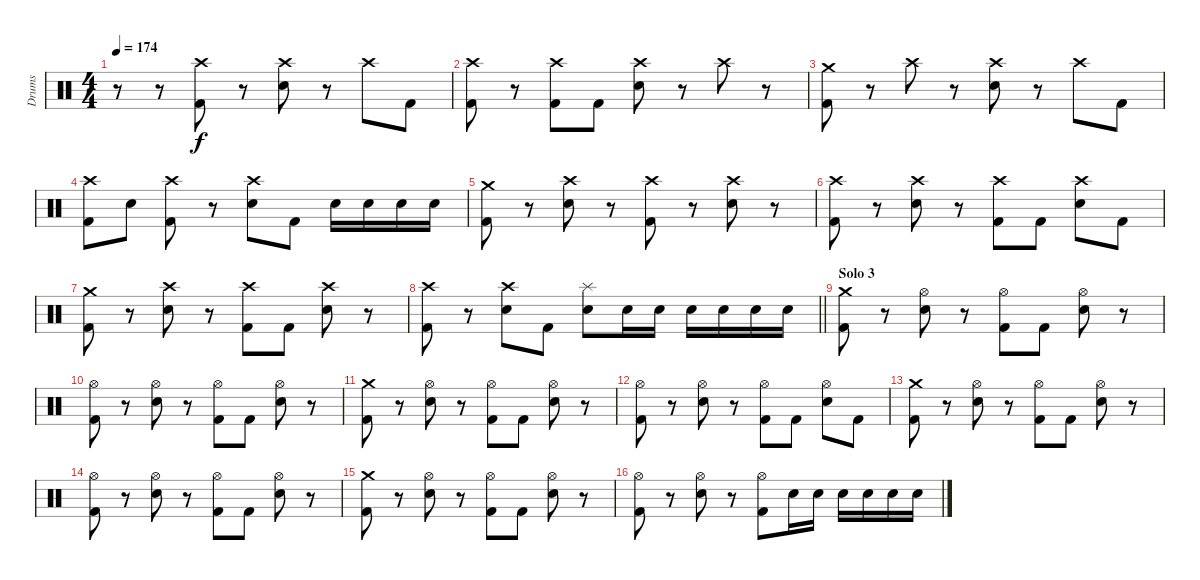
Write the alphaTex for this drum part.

\track ("Drums" "Drums") {instrument percussion}
\staff {score}
\articulation defaults
\ts (4 4)
\tempo 174
\clef neutral
\ks c
r.8{dy f} r.8 ("Crash high (hit)" "Kick (hit) 2").8 r.8 ("Crash high (hit)" "Electric Snare (hit)").8 r.8 "Crash high (hit)".8 "Kick (hit) 2".8 |
("Crash high (hit)" "Kick (hit) 2").8 r.8 ("Crash high (hit)" "Kick (hit) 2").8 "Kick (hit) 2".8 ("Crash high (hit)" "Electric Snare (hit)").8 r.8 "Crash high (hit)".8 r.8 |
("Crash medium (hit)" "Kick (hit) 2").8 r.8 "Crash high (hit)".8 r.8 ("Crash high (hit)" "Electric Snare (hit)").8 r.8 "Crash high (hit)".8 "Kick (hit) 2".8 |
("Crash high (hit)" "Kick (hit) 2").8 "Electric Snare (hit)".8 ("Crash high (hit)" "Kick (hit) 2").8 r.8 ("Crash high (hit)" "Electric Snare (hit)").8 "Kick (hit) 2".8 "Electric Snare (hit)".16 "Electric Snare (hit)".16 "Electric Snare (hit)".16 "Electric Snare (hit)".16 |
("Crash medium (hit)" "Kick (hit) 2").8 r.8 ("Crash high (hit)" "Electric Snare (hit)").8 r.8 ("Crash high (hit)" "Kick (hit) 2").8 r.8 ("Crash high (hit)" "Electric Snare (hit)").8 r.8 |
("Crash high (hit)" "Kick (hit) 2").8 r.8 ("Crash high (hit)" "Electric Snare (hit)").8 r.8 ("Crash high (hit)" "Kick (hit) 2").8 "Kick (hit) 2".8 ("Crash high (hit)" "Electric Snare (hit)").8 "Kick (hit) 2".8 |
("Crash medium (hit)" "Kick (hit) 2").8 r.8 ("Crash high (hit)" "Electric Snare (hit)").8 r.8 ("Crash high (hit)" "Kick (hit) 2").8 "Kick (hit) 2".8 ("Crash high (hit)" "Electric Snare (hit)").8 r.8 |
\barLineRight lightlight
("Crash high (hit)" "Kick (hit) 2").8 r.8 ("Crash high (hit)" "Electric Snare (hit)").8 "Kick (hit) 2".8 ("Splash (hit)" "Electric Snare (hit)").8 "Electric Snare (hit)".16 "Electric Snare (hit)".16 "Electric Snare (hit)".16 "Electric Snare (hit)".16 "Electric Snare (hit)".16 "Electric Snare (hit)".16 |
\section ("" "Solo 3")
("Crash medium (hit)" "Kick (hit) 2").8 r.8 ("Hi-Hat (open)" "Electric Snare (hit)").8 r.8 ("Hi-Hat (open)" "Kick (hit) 2").8 "Kick (hit) 2".8 ("Hi-Hat (open)" "Electric Snare (hit)").8 r.8 |
("Hi-Hat (open)" "Kick (hit) 2").8 r.8 ("Hi-Hat (open)" "Electric Snare (hit)").8 r.8 ("Hi-Hat (open)" "Kick (hit) 2").8 "Kick (hit) 2".8 ("Hi-Hat (open)" "Electric Snare (hit)").8 r.8 |
("Crash medium (hit)" "Kick (hit) 2").8 r.8 ("Hi-Hat (open)" "Electric Snare (hit)").8 r.8 ("Hi-Hat (open)" "Kick (hit) 2").8 "Kick (hit) 2".8 ("Hi-Hat (open)" "Electric Snare (hit)").8 r.8 |
("Hi-Hat (open)" "Kick (hit) 2").8 r.8 ("Hi-Hat (open)" "Electric Snare (hit)").8 r.8 ("Hi-Hat (open)" "Kick (hit) 2").8 "Kick (hit) 2".8 ("Hi-Hat (open)" "Electric Snare (hit)").8 "Kick (hit) 2".8 |
("Crash medium (hit)" "Kick (hit) 2").8 r.8 ("Hi-Hat (open)" "Electric Snare (hit)").8 r.8 ("Hi-Hat (open)" "Kick (hit) 2").8 "Kick (hit) 2".8 ("Hi-Hat (open)" "Electric Snare (hit)").8 r.8 |
("Hi-Hat (open)" "Kick (hit) 2").8 r.8 ("Hi-Hat (open)" "Electric Snare (hit)").8 r.8 ("Hi-Hat (open)" "Kick (hit) 2").8 "Kick (hit) 2".8 ("Hi-Hat (open)" "Electric Snare (hit)").8 r.8 |
("Crash medium (hit)" "Kick (hit) 2").8 r.8 ("Hi-Hat (open)" "Electric Snare (hit)").8 r.8 ("Hi-Hat (open)" "Kick (hit) 2").8 "Kick (hit) 2".8 ("Hi-Hat (open)" "Electric Snare (hit)").8 r.8 |
("Hi-Hat (open)" "Kick (hit) 2").8 r.8 ("Hi-Hat (open)" "Electric Snare (hit)").8 r.8 ("Hi-Hat (open)" "Kick (hit) 2").8 "Electric Snare (hit)".16 "Electric Snare (hit)".16 "Electric Snare (hit)".16 "Electric Snare (hit)".16 "Electric Snare (hit)".16 "Electric Snare (hit)".16
